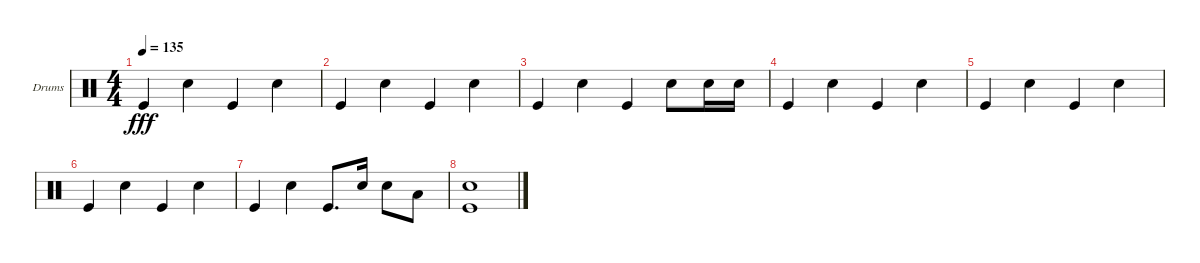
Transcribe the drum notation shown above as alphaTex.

\defaultSystemsLayout 4
\bracketExtendMode groupsimilarinstruments
\firstSystemTrackNameOrientation horizontal
\otherSystemsTrackNameOrientation horizontal
\track ("Helders" "Drums") {instrument percussion}
\staff {score}
\articulation defaults
\ts (4 4)
\tempo 135
\clef neutral
\ks c "Kick (hit)".4{dy fff} "Snare (hit) 2".4 "Kick (hit)".4 "Snare (hit) 2".4
|
"Kick (hit)".4 "Snare (hit) 2".4 "Kick (hit)".4 "Snare (hit) 2".4 |
"Kick (hit)".4 "Snare (hit) 2".4 "Kick (hit)".4 "Snare (hit) 2".8 "Snare (hit) 2".16 "Snare (hit) 2".16 |
"Kick (hit)".4 "Snare (hit) 2".4 "Kick (hit)".4 "Snare (hit) 2".4 |
"Kick (hit)".4 "Snare (hit) 2".4 "Kick (hit)".4 "Snare (hit) 2".4 |
"Kick (hit)".4 "Snare (hit) 2".4 "Kick (hit)".4 "Snare (hit) 2".4 |
"Kick (hit)".4 "Snare (hit) 2".4 "Kick (hit)".8{d} "Snare (hit) 2".16 "Snare (hit) 2".8 "Low Tom (hit)".8 |
("Kick (hit)" "Snare (hit) 2").1
